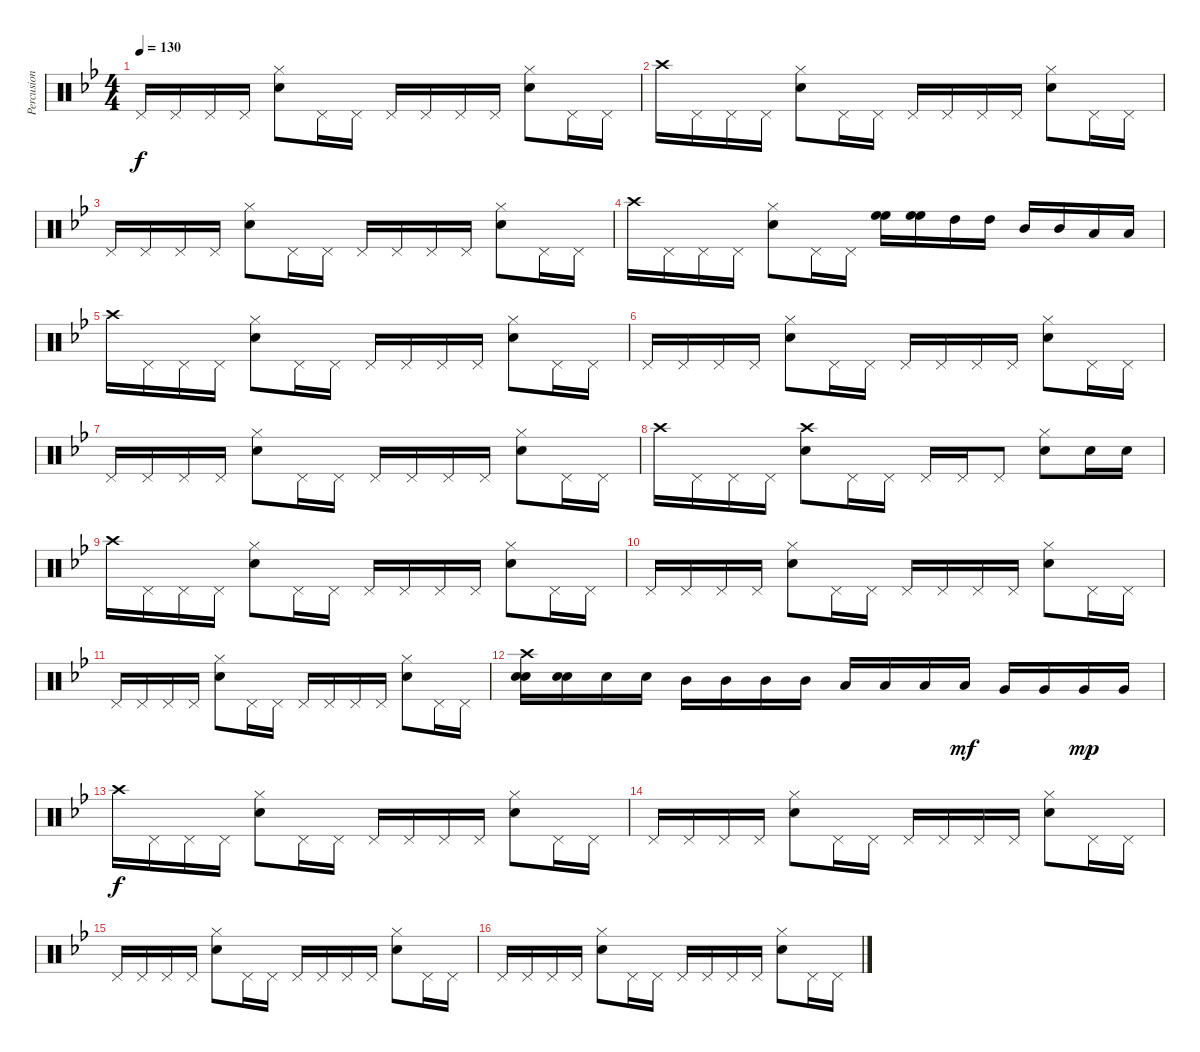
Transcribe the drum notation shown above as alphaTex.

\track ("Percusion I" "Percusion ") {instrument percussion}
\staff {score}
\articulation defaults
\ts (4 4)
\tempo 130
\clef neutral
\ks gminor "Pedal Hi-Hat (hit)".16{dy f} "Pedal Hi-Hat (hit)".16 "Pedal Hi-Hat (hit)".16 "Pedal Hi-Hat (hit)".16
("Hi-Hat (closed)" "Snare (hit) 2").8 "Pedal Hi-Hat (hit)".16 "Pedal Hi-Hat (hit)".16 "Pedal Hi-Hat (hit)".16 "Pedal Hi-Hat (hit)".16 "Pedal Hi-Hat (hit)".16 "Pedal Hi-Hat (hit)".16 ("Snare (hit) 2" "Hi-Hat (closed)").8 "Pedal Hi-Hat (hit)".16 "Pedal Hi-Hat (hit)".16 |
"Crash high (hit)".16 "Pedal Hi-Hat (hit)".16 "Pedal Hi-Hat (hit)".16 "Pedal Hi-Hat (hit)".16 ("Hi-Hat (closed)" "Snare (hit) 2").8 "Pedal Hi-Hat (hit)".16 "Pedal Hi-Hat (hit)".16 "Pedal Hi-Hat (hit)".16 "Pedal Hi-Hat (hit)".16 "Pedal Hi-Hat (hit)".16 "Pedal Hi-Hat (hit)".16 ("Hi-Hat (closed)" "Snare (hit) 2").8 "Pedal Hi-Hat (hit)".16 "Pedal Hi-Hat (hit)".16 |
"Pedal Hi-Hat (hit)".16 "Pedal Hi-Hat (hit)".16 "Pedal Hi-Hat (hit)".16 "Pedal Hi-Hat (hit)".16 ("Hi-Hat (closed)" "Snare (hit) 2").8 "Pedal Hi-Hat (hit)".16 "Pedal Hi-Hat (hit)".16 "Pedal Hi-Hat (hit)".16 "Pedal Hi-Hat (hit)".16 "Pedal Hi-Hat (hit)".16 "Pedal Hi-Hat (hit)".16 ("Snare (hit) 2" "Hi-Hat (closed)").8 "Pedal Hi-Hat (hit)".16 "Pedal Hi-Hat (hit)".16 |
"Crash high (hit)".16 "Pedal Hi-Hat (hit)".16 "Pedal Hi-Hat (hit)".16 "Pedal Hi-Hat (hit)".16 ("Snare (hit) 2" "Hi-Hat (closed)").8 "Pedal Hi-Hat (hit)".16 "Pedal Hi-Hat (hit)".16 ("High Floor Tom (hit)" "High Floor Tom (hit)").16 ("High Floor Tom (hit)" "High Floor Tom (hit)").16 "High Tom (hit)".16 "High Tom (hit)".16 "Mid Tom (hit)".16 "Mid Tom (hit)".16 "Low Tom (hit)".16 "Low Tom (hit)".16 |
"Crash high (hit)".16 "Pedal Hi-Hat (hit)".16 "Pedal Hi-Hat (hit)".16 "Pedal Hi-Hat (hit)".16 ("Snare (hit) 2" "Hi-Hat (closed)").8 "Pedal Hi-Hat (hit)".16 "Pedal Hi-Hat (hit)".16 "Pedal Hi-Hat (hit)".16 "Pedal Hi-Hat (hit)".16 "Pedal Hi-Hat (hit)".16 "Pedal Hi-Hat (hit)".16 ("Snare (hit) 2" "Hi-Hat (closed)").8 "Pedal Hi-Hat (hit)".16 "Pedal Hi-Hat (hit)".16 |
"Pedal Hi-Hat (hit)".16 "Pedal Hi-Hat (hit)".16 "Pedal Hi-Hat (hit)".16 "Pedal Hi-Hat (hit)".16 ("Snare (hit) 2" "Hi-Hat (closed)").8 "Pedal Hi-Hat (hit)".16 "Pedal Hi-Hat (hit)".16 "Pedal Hi-Hat (hit)".16 "Pedal Hi-Hat (hit)".16 "Pedal Hi-Hat (hit)".16 "Pedal Hi-Hat (hit)".16 ("Snare (hit) 2" "Hi-Hat (closed)").8 "Pedal Hi-Hat (hit)".16 "Pedal Hi-Hat (hit)".16 |
"Pedal Hi-Hat (hit)".16 "Pedal Hi-Hat (hit)".16 "Pedal Hi-Hat (hit)".16 "Pedal Hi-Hat (hit)".16 ("Hi-Hat (closed)" "Snare (hit) 2").8 "Pedal Hi-Hat (hit)".16 "Pedal Hi-Hat (hit)".16 "Pedal Hi-Hat (hit)".16 "Pedal Hi-Hat (hit)".16 "Pedal Hi-Hat (hit)".16 "Pedal Hi-Hat (hit)".16 ("Snare (hit) 2" "Hi-Hat (closed)").8 "Pedal Hi-Hat (hit)".16 "Pedal Hi-Hat (hit)".16 |
"Crash high (hit)".16 "Pedal Hi-Hat (hit)".16 "Pedal Hi-Hat (hit)".16 "Pedal Hi-Hat (hit)".16 ("Snare (hit) 2" "Crash high (hit)").8 "Pedal Hi-Hat (hit)".16 "Pedal Hi-Hat (hit)".16 "Pedal Hi-Hat (hit)".16 "Pedal Hi-Hat (hit)".16 "Pedal Hi-Hat (hit)".8 ("Snare (hit) 2" "Hi-Hat (closed)").8 "Snare (hit) 2".16 "Snare (hit) 2".16 |
"Crash high (hit)".16 "Pedal Hi-Hat (hit)".16 "Pedal Hi-Hat (hit)".16 "Pedal Hi-Hat (hit)".16 ("Snare (hit) 2" "Hi-Hat (closed)").8 "Pedal Hi-Hat (hit)".16 "Pedal Hi-Hat (hit)".16 "Pedal Hi-Hat (hit)".16 "Pedal Hi-Hat (hit)".16 "Pedal Hi-Hat (hit)".16 "Pedal Hi-Hat (hit)".16 ("Snare (hit) 2" "Hi-Hat (closed)").8 "Pedal Hi-Hat (hit)".16 "Pedal Hi-Hat (hit)".16 |
"Pedal Hi-Hat (hit)".16 "Pedal Hi-Hat (hit)".16 "Pedal Hi-Hat (hit)".16 "Pedal Hi-Hat (hit)".16 ("Hi-Hat (closed)" "Snare (hit) 2").8 "Pedal Hi-Hat (hit)".16 "Pedal Hi-Hat (hit)".16 "Pedal Hi-Hat (hit)".16 "Pedal Hi-Hat (hit)".16 "Pedal Hi-Hat (hit)".16 "Pedal Hi-Hat (hit)".16 ("Snare (hit) 2" "Hi-Hat (closed)").8 "Pedal Hi-Hat (hit)".16 "Pedal Hi-Hat (hit)".16 |
"Pedal Hi-Hat (hit)".16 "Pedal Hi-Hat (hit)".16 "Pedal Hi-Hat (hit)".16 "Pedal Hi-Hat (hit)".16 ("Hi-Hat (closed)" "Snare (hit) 2").8 "Pedal Hi-Hat (hit)".16 "Pedal Hi-Hat (hit)".16 "Pedal Hi-Hat (hit)".16 "Pedal Hi-Hat (hit)".16 "Pedal Hi-Hat (hit)".16 "Pedal Hi-Hat (hit)".16 ("Snare (hit) 2" "Hi-Hat (closed)").8 "Pedal Hi-Hat (hit)".16 "Pedal Hi-Hat (hit)".16 |
("Snare (hit) 2" "Crash high (hit)" "Snare (hit) 2").16 ("Snare (hit) 2" "Snare (hit) 2").16 "Snare (hit) 2".16 "Snare (hit) 2".16 "Mid Tom (hit)".16 "Mid Tom (hit)".16 "Mid Tom (hit)".16 "Mid Tom (hit)".16 "Low Tom (hit)".16 "Low Tom (hit)".16 "Low Tom (hit)".16 "Low Tom (hit)".16{dy mf} "Very Low Tom (hit)".16 "Very Low Tom (hit)".16 "Very Low Tom (hit)".16{dy mp} "Very Low Tom (hit)".16 |
"Crash high (hit)".16{dy f} "Pedal Hi-Hat (hit)".16 "Pedal Hi-Hat (hit)".16 "Pedal Hi-Hat (hit)".16 ("Snare (hit) 2" "Hi-Hat (closed)").8 "Pedal Hi-Hat (hit)".16 "Pedal Hi-Hat (hit)".16 "Pedal Hi-Hat (hit)".16 "Pedal Hi-Hat (hit)".16 "Pedal Hi-Hat (hit)".16 "Pedal Hi-Hat (hit)".16 ("Snare (hit) 2" "Hi-Hat (closed)").8 "Pedal Hi-Hat (hit)".16 "Pedal Hi-Hat (hit)".16 |
"Pedal Hi-Hat (hit)".16 "Pedal Hi-Hat (hit)".16 "Pedal Hi-Hat (hit)".16 "Pedal Hi-Hat (hit)".16 ("Hi-Hat (closed)" "Snare (hit) 2").8 "Pedal Hi-Hat (hit)".16 "Pedal Hi-Hat (hit)".16 "Pedal Hi-Hat (hit)".16 "Pedal Hi-Hat (hit)".16 "Pedal Hi-Hat (hit)".16 "Pedal Hi-Hat (hit)".16 ("Snare (hit) 2" "Hi-Hat (closed)").8 "Pedal Hi-Hat (hit)".16 "Pedal Hi-Hat (hit)".16 |
"Pedal Hi-Hat (hit)".16 "Pedal Hi-Hat (hit)".16 "Pedal Hi-Hat (hit)".16 "Pedal Hi-Hat (hit)".16 ("Hi-Hat (closed)" "Snare (hit) 2").8 "Pedal Hi-Hat (hit)".16 "Pedal Hi-Hat (hit)".16 "Pedal Hi-Hat (hit)".16 "Pedal Hi-Hat (hit)".16 "Pedal Hi-Hat (hit)".16 "Pedal Hi-Hat (hit)".16 ("Snare (hit) 2" "Hi-Hat (closed)").8 "Pedal Hi-Hat (hit)".16 "Pedal Hi-Hat (hit)".16 |
"Pedal Hi-Hat (hit)".16 "Pedal Hi-Hat (hit)".16 "Pedal Hi-Hat (hit)".16 "Pedal Hi-Hat (hit)".16 ("Hi-Hat (closed)" "Snare (hit) 2").8 "Pedal Hi-Hat (hit)".16 "Pedal Hi-Hat (hit)".16 "Pedal Hi-Hat (hit)".16 "Pedal Hi-Hat (hit)".16 "Pedal Hi-Hat (hit)".16 "Pedal Hi-Hat (hit)".16 ("Snare (hit) 2" "Hi-Hat (closed)").8 "Pedal Hi-Hat (hit)".16 "Pedal Hi-Hat (hit)".16
